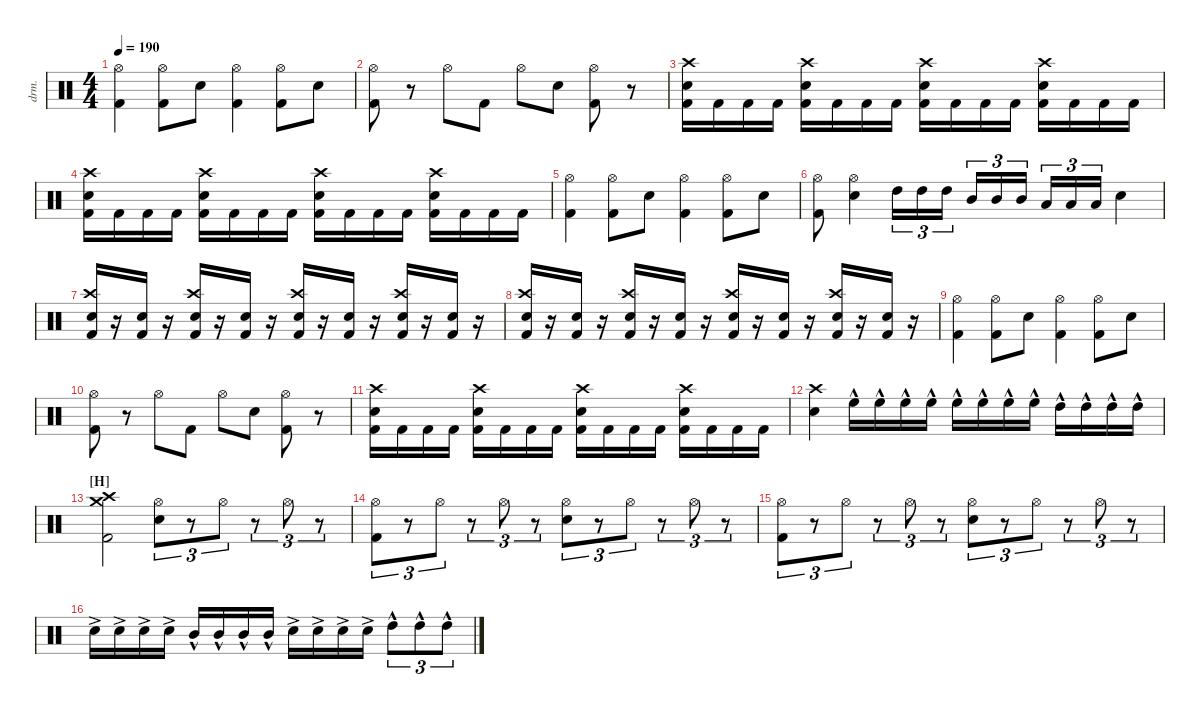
\defaultSystemsLayout 4
\hideDynamics
\bracketExtendMode nobrackets
\otherSystemsTrackNameOrientation horizontal
\track ("Drumkit" "drm.") {instrument percussion}
\staff {score}
\articulation defaults
\ts (4 4)
\tempo 190
\clef neutral
\ks c
("Kick (hit) 2" "Hi-Hat (open)").4{dy mf beam Down} ("Kick (hit) 2" "Hi-Hat (open)").8{beam Down} "Snare (hit) 2".8{beam Down} ("Kick (hit) 2" "Hi-Hat (open)").4{beam Down} ("Kick (hit) 2" "Hi-Hat (open)").8{beam Down} "Snare (hit) 2".8{beam Down} |
("Kick (hit) 2" "Hi-Hat (open)").8{beam Down} r.8{beam Down} "Hi-Hat (open)".8{beam Down} "Kick (hit) 2".8{beam Down} "Hi-Hat (open)".8{beam Down} "Snare (hit) 2".8{beam Down} ("Kick (hit) 2" "Hi-Hat (open)").8{beam Down} r.8{beam Down} |
("Kick (hit) 2" "Snare (hit) 2" "Crash high (hit)").16{beam Down} "Kick (hit) 2".16{beam Down} "Kick (hit) 2".16{beam Down} "Kick (hit) 2".16{beam Down} ("Kick (hit) 2" "Snare (hit) 2" "Crash high (hit)").16{beam Down} "Kick (hit) 2".16{beam Down} "Kick (hit) 2".16{beam Down} "Kick (hit) 2".16{beam Down} ("Kick (hit) 2" "Snare (hit) 2" "Crash high (hit)").16{beam Down} "Kick (hit) 2".16{beam Down} "Kick (hit) 2".16{beam Down} "Kick (hit) 2".16{beam Down} ("Kick (hit) 2" "Snare (hit) 2" "Crash high (hit)").16{beam Down} "Kick (hit) 2".16{beam Down} "Kick (hit) 2".16{beam Down} "Kick (hit) 2".16{beam Down} |
("Kick (hit) 2" "Snare (hit) 2" "Crash high (hit)").16{beam Down} "Kick (hit) 2".16{beam Down} "Kick (hit) 2".16{beam Down} "Kick (hit) 2".16{beam Down} ("Kick (hit) 2" "Snare (hit) 2" "Crash high (hit)").16{beam Down} "Kick (hit) 2".16{beam Down} "Kick (hit) 2".16{beam Down} "Kick (hit) 2".16{beam Down} ("Kick (hit) 2" "Snare (hit) 2" "Crash high (hit)").16{beam Down} "Kick (hit) 2".16{beam Down} "Kick (hit) 2".16{beam Down} "Kick (hit) 2".16{beam Down} ("Kick (hit) 2" "Snare (hit) 2" "Crash high (hit)").16{beam Down} "Kick (hit) 2".16{beam Down} "Kick (hit) 2".16{beam Down} "Kick (hit) 2".16{beam Down} |
("Kick (hit) 2" "Hi-Hat (open)").4{beam Down} ("Kick (hit) 2" "Hi-Hat (open)").8{beam Down} "Snare (hit) 2".8{beam Down} ("Kick (hit) 2" "Hi-Hat (open)").4{beam Down} ("Kick (hit) 2" "Hi-Hat (open)").8{beam Down} "Snare (hit) 2".8{beam Down} |
("Kick (hit) 2" "Hi-Hat (open)").8{beam Down} ("Snare (hit) 2" "Hi-Hat (open)").4{beam Down} "High Tom (hit)".16{tu (3 2) beam Down} "High Tom (hit)".16{tu (3 2) beam Down} "High Tom (hit)".16{tu (3 2) beam Down} "Mid Tom (hit)".16{tu (3 2) beam Up} "Mid Tom (hit)".16{tu (3 2) beam Up} "Mid Tom (hit)".16{tu (3 2) beam Up} "Low Tom (hit)".16{tu (3 2) beam Up} "Low Tom (hit)".16{tu (3 2) beam Up} "Low Tom (hit)".16{tu (3 2) beam Up} "Snare (hit) 2".4{beam Down} |
("Kick (hit) 2" "Snare (hit) 2" "Crash high (hit)").16{beam Up} r.16{beam Up} ("Kick (hit) 2" "Snare (hit) 2").16{beam Up} r.16{beam Up} ("Kick (hit) 2" "Snare (hit) 2" "Crash high (hit)").16{beam Up} r.16{beam Up} ("Kick (hit) 2" "Snare (hit) 2").16{beam Up} r.16{beam Up} ("Kick (hit) 2" "Snare (hit) 2" "Crash high (hit)").16{beam Up} r.16{beam Up} ("Kick (hit) 2" "Snare (hit) 2").16{beam Up} r.16{beam Up} ("Kick (hit) 2" "Snare (hit) 2" "Crash high (hit)").16{beam Up} r.16{beam Up} ("Kick (hit) 2" "Snare (hit) 2").16{beam Up} r.16{beam Up} |
("Kick (hit) 2" "Snare (hit) 2" "Crash high (hit)").16{beam Up} r.16{beam Up} ("Kick (hit) 2" "Snare (hit) 2").16{beam Up} r.16{beam Up} ("Kick (hit) 2" "Snare (hit) 2" "Crash high (hit)").16{beam Up} r.16{beam Up} ("Kick (hit) 2" "Snare (hit) 2").16{beam Up} r.16{beam Up} ("Kick (hit) 2" "Snare (hit) 2" "Crash high (hit)").16{beam Up} r.16{beam Up} ("Kick (hit) 2" "Snare (hit) 2").16{beam Up} r.16{beam Up} ("Kick (hit) 2" "Snare (hit) 2" "Crash high (hit)").16{beam Up} r.16{beam Up} ("Kick (hit) 2" "Snare (hit) 2").16{beam Up} r.16{beam Up} |
("Kick (hit) 2" "Hi-Hat (open)").4{beam Down} ("Kick (hit) 2" "Hi-Hat (open)").8{beam Down} "Snare (hit) 2".8{beam Down} ("Kick (hit) 2" "Hi-Hat (open)").4{beam Down} ("Kick (hit) 2" "Hi-Hat (open)").8{beam Down} "Snare (hit) 2".8{beam Down} |
("Kick (hit) 2" "Hi-Hat (open)").8{beam Down} r.8{beam Down} "Hi-Hat (open)".8{beam Down} "Kick (hit) 2".8{beam Down} "Hi-Hat (open)".8{beam Down} "Snare (hit) 2".8{beam Down} ("Kick (hit) 2" "Hi-Hat (open)").8{beam Down} r.8{beam Down} |
("Kick (hit) 2" "Snare (hit) 2" "Crash high (hit)").16{beam Down} "Kick (hit) 2".16{beam Down} "Kick (hit) 2".16{beam Down} "Kick (hit) 2".16{beam Down} ("Kick (hit) 2" "Snare (hit) 2" "Crash high (hit)").16{beam Down} "Kick (hit) 2".16{beam Down} "Kick (hit) 2".16{beam Down} "Kick (hit) 2".16{beam Down} ("Kick (hit) 2" "Snare (hit) 2" "Crash high (hit)").16{beam Down} "Kick (hit) 2".16{beam Down} "Kick (hit) 2".16{beam Down} "Kick (hit) 2".16{beam Down} ("Kick (hit) 2" "Snare (hit) 2" "Crash high (hit)").16{beam Down} "Kick (hit) 2".16{beam Down} "Kick (hit) 2".16{beam Down} "Kick (hit) 2".16{beam Down} |
("Crash high (hit)" "Snare (hit) 2").4{beam Down} "High Floor Tom (hit)"{hac}.16{beam Down} "High Floor Tom (hit)"{hac}.16{beam Down} "High Floor Tom (hit)"{hac}.16{beam Down} "High Floor Tom (hit)"{hac}.16{beam Down} "High Floor Tom (hit)"{hac}.16{beam Down} "High Floor Tom (hit)"{hac}.16{beam Down} "High Floor Tom (hit)"{hac}.16{beam Down} "High Floor Tom (hit)"{hac}.16{beam Down} "High Tom (hit)"{hac}.16{beam Down} "High Tom (hit)"{hac}.16{beam Down} "High Tom (hit)"{hac}.16{beam Down} "High Tom (hit)"{hac}.16{beam Down} |
\section ("H" "")
("Kick (hit) 2" "Crash medium (hit)" "Crash high (hit)").2{beam Down} ("Snare (hit) 2" "Hi-Hat (open)").8{tu (3 2) beam Down} r.8{tu (3 2) beam Down} "Hi-Hat (open)".8{tu (3 2) beam Down} r.8{tu (3 2) beam Down} "Hi-Hat (open)".8{tu (3 2) beam Down} r.8{tu (3 2) beam Down} |
("Hi-Hat (open)" "Kick (hit) 2").8{tu (3 2) beam Down} r.8{tu (3 2) beam Down} "Hi-Hat (open)".8{tu (3 2) beam Down} r.8{tu (3 2) beam Down} "Hi-Hat (open)".8{tu (3 2) beam Down} r.8{tu (3 2) beam Down} ("Hi-Hat (open)" "Snare (hit) 2").8{tu (3 2) beam Down} r.8{tu (3 2) beam Down} "Hi-Hat (open)".8{tu (3 2) beam Down} r.8{tu (3 2) beam Down} "Hi-Hat (open)".8{tu (3 2) beam Down} r.8{tu (3 2) beam Down} |
("Hi-Hat (open)" "Kick (hit) 2").8{tu (3 2) beam Down} r.8{tu (3 2) beam Down} "Hi-Hat (open)".8{tu (3 2) beam Down} r.8{tu (3 2) beam Down} "Hi-Hat (open)".8{tu (3 2) beam Down} r.8{tu (3 2) beam Down} ("Hi-Hat (open)" "Snare (hit) 2").8{tu (3 2) beam Down} r.8{tu (3 2) beam Down} "Hi-Hat (open)".8{tu (3 2) beam Down} r.8{tu (3 2) beam Down} "Hi-Hat (open)".8{tu (3 2) beam Down} r.8{tu (3 2) beam Down} |
"Snare (hit) 2"{ac}.16{beam Down} "Snare (hit) 2"{ac}.16{beam Down} "Snare (hit) 2"{ac}.16{beam Down} "Snare (hit) 2"{ac}.16{beam Down} "Mid Tom (hit)"{hac}.16{beam Up} "Mid Tom (hit)"{hac}.16{beam Up} "Mid Tom (hit)"{hac}.16{beam Up} "Mid Tom (hit)"{hac}.16{beam Up} "Snare (hit) 2"{ac}.16{beam Down} "Snare (hit) 2"{ac}.16{beam Down} "Snare (hit) 2"{ac}.16{beam Down} "Snare (hit) 2"{ac}.16{beam Down} "High Tom (hit)"{hac}.8{tu (3 2) beam Down} "High Tom (hit)"{hac}.8{tu (3 2) beam Down} "High Tom (hit)"{hac}.8{tu (3 2) beam Down}
